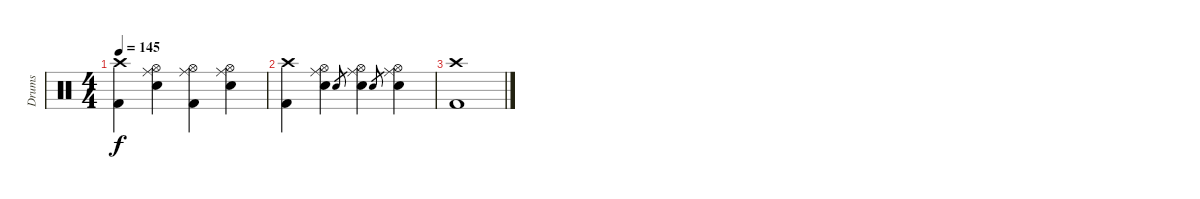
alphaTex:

\track ("Drums" "Drums") {instrument percussion}
\staff {score}
\articulation defaults
\ts (4 4)
\tempo 145
\clef neutral
\ks c
("Crash high (hit)" "Kick (hit) 2").4{dy f} ("Hi-Hat (open)" "Ride (middle)" "Snare (hit) 2").4 ("Hi-Hat (open)" "Ride (middle)" "Kick (hit) 2").4 ("Hi-Hat (open)" "Ride (middle)" "Snare (hit) 2").4 |
("Crash high (hit)" "Kick (hit) 2").4 ("Hi-Hat (open)" "Ride (middle)" "Snare (hit) 2").4 "Snare (hit) 2".8{gr} ("Hi-Hat (open)" "Ride (middle)" "Snare (hit) 2").4 "Snare (hit) 2".8{gr} ("Hi-Hat (open)" "Ride (middle)" "Snare (hit) 2").4 |
("Crash high (hit)" "Kick (hit) 2").1
